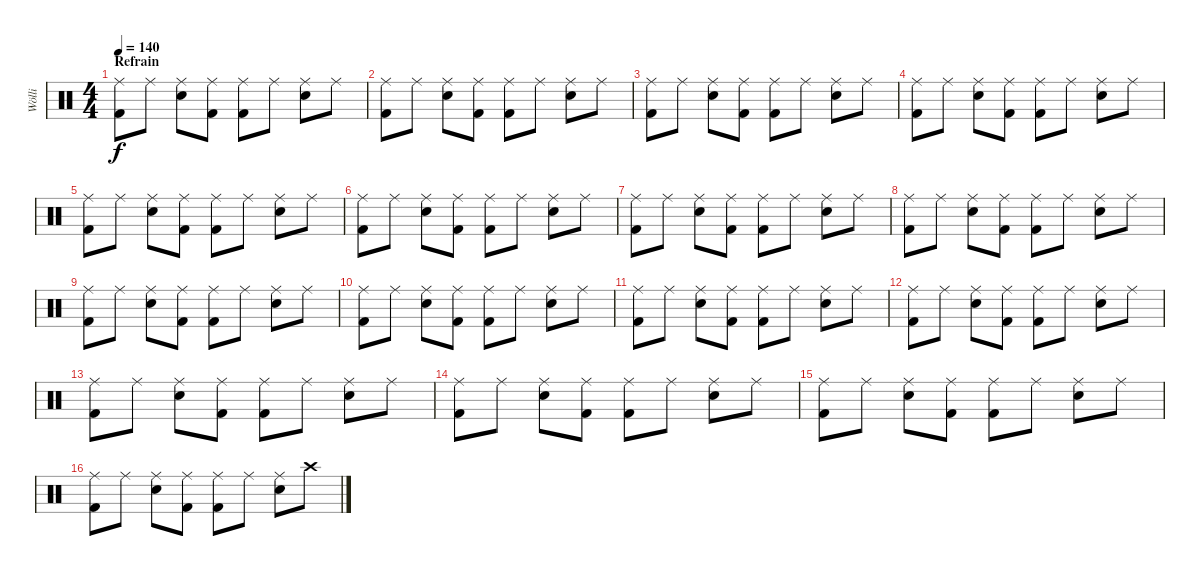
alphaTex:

\track ("Wölli" "Wölli") {instrument percussion}
\staff {score}
\articulation defaults
\ts (4 4)
\section ("" "Refrain")
\tempo 140
\clef neutral
\ks c
("Ride (middle)" "Kick (hit) 2").8{dy f} "Ride (middle)".8 ("Ride (middle)" "Snare (hit) 2").8 ("Ride (middle)" "Kick (hit) 2").8 ("Ride (middle)" "Kick (hit) 2").8 "Ride (middle)".8 ("Ride (middle)" "Snare (hit) 2").8 "Ride (middle)".8 |
("Ride (middle)" "Kick (hit) 2").8 "Ride (middle)".8 ("Ride (middle)" "Snare (hit) 2").8 ("Ride (middle)" "Kick (hit) 2").8 ("Ride (middle)" "Kick (hit) 2").8 "Ride (middle)".8 ("Ride (middle)" "Snare (hit) 2").8 "Ride (middle)".8 |
("Ride (middle)" "Kick (hit) 2").8 "Ride (middle)".8 ("Ride (middle)" "Snare (hit) 2").8 ("Ride (middle)" "Kick (hit) 2").8 ("Ride (middle)" "Kick (hit) 2").8 "Ride (middle)".8 ("Ride (middle)" "Snare (hit) 2").8 "Ride (middle)".8 |
("Ride (middle)" "Kick (hit) 2").8 "Ride (middle)".8 ("Ride (middle)" "Snare (hit) 2").8 ("Ride (middle)" "Kick (hit) 2").8 ("Ride (middle)" "Kick (hit) 2").8 "Ride (middle)".8 ("Ride (middle)" "Snare (hit) 2").8 "Ride (middle)".8 |
("Ride (middle)" "Kick (hit) 2").8 "Ride (middle)".8 ("Ride (middle)" "Snare (hit) 2").8 ("Ride (middle)" "Kick (hit) 2").8 ("Ride (middle)" "Kick (hit) 2").8 "Ride (middle)".8 ("Ride (middle)" "Snare (hit) 2").8 "Ride (middle)".8 |
("Ride (middle)" "Kick (hit) 2").8 "Ride (middle)".8 ("Ride (middle)" "Snare (hit) 2").8 ("Ride (middle)" "Kick (hit) 2").8 ("Ride (middle)" "Kick (hit) 2").8 "Ride (middle)".8 ("Ride (middle)" "Snare (hit) 2").8 "Ride (middle)".8 |
("Ride (middle)" "Kick (hit) 2").8 "Ride (middle)".8 ("Ride (middle)" "Snare (hit) 2").8 ("Ride (middle)" "Kick (hit) 2").8 ("Ride (middle)" "Kick (hit) 2").8 "Ride (middle)".8 ("Ride (middle)" "Snare (hit) 2").8 "Ride (middle)".8 |
("Ride (middle)" "Kick (hit) 2").8 "Ride (middle)".8 ("Ride (middle)" "Snare (hit) 2").8 ("Ride (middle)" "Kick (hit) 2").8 ("Ride (middle)" "Kick (hit) 2").8 "Ride (middle)".8 ("Ride (middle)" "Snare (hit) 2").8 "Ride (middle)".8 |
("Ride (middle)" "Kick (hit) 2").8 "Ride (middle)".8 ("Ride (middle)" "Snare (hit) 2").8 ("Ride (middle)" "Kick (hit) 2").8 ("Ride (middle)" "Kick (hit) 2").8 "Ride (middle)".8 ("Ride (middle)" "Snare (hit) 2").8 "Ride (middle)".8 |
("Ride (middle)" "Kick (hit) 2").8 "Ride (middle)".8 ("Ride (middle)" "Snare (hit) 2").8 ("Ride (middle)" "Kick (hit) 2").8 ("Ride (middle)" "Kick (hit) 2").8 "Ride (middle)".8 ("Ride (middle)" "Snare (hit) 2").8 "Ride (middle)".8 |
("Ride (middle)" "Kick (hit) 2").8 "Ride (middle)".8 ("Ride (middle)" "Snare (hit) 2").8 ("Ride (middle)" "Kick (hit) 2").8 ("Ride (middle)" "Kick (hit) 2").8 "Ride (middle)".8 ("Ride (middle)" "Snare (hit) 2").8 "Ride (middle)".8 |
("Ride (middle)" "Kick (hit) 2").8 "Ride (middle)".8 ("Ride (middle)" "Snare (hit) 2").8 ("Ride (middle)" "Kick (hit) 2").8 ("Ride (middle)" "Kick (hit) 2").8 "Ride (middle)".8 ("Ride (middle)" "Snare (hit) 2").8 "Ride (middle)".8 |
("Ride (middle)" "Kick (hit) 2").8 "Ride (middle)".8 ("Ride (middle)" "Snare (hit) 2").8 ("Ride (middle)" "Kick (hit) 2").8 ("Ride (middle)" "Kick (hit) 2").8 "Ride (middle)".8 ("Ride (middle)" "Snare (hit) 2").8 "Ride (middle)".8 |
("Ride (middle)" "Kick (hit) 2").8 "Ride (middle)".8 ("Ride (middle)" "Snare (hit) 2").8 ("Ride (middle)" "Kick (hit) 2").8 ("Ride (middle)" "Kick (hit) 2").8 "Ride (middle)".8 ("Ride (middle)" "Snare (hit) 2").8 "Ride (middle)".8 |
("Ride (middle)" "Kick (hit) 2").8 "Ride (middle)".8 ("Ride (middle)" "Snare (hit) 2").8 ("Ride (middle)" "Kick (hit) 2").8 ("Ride (middle)" "Kick (hit) 2").8 "Ride (middle)".8 ("Ride (middle)" "Snare (hit) 2").8 "Ride (middle)".8 |
("Ride (middle)" "Kick (hit) 2").8 "Ride (middle)".8 ("Ride (middle)" "Snare (hit) 2").8 ("Ride (middle)" "Kick (hit) 2").8 ("Ride (middle)" "Kick (hit) 2").8 "Ride (middle)".8 ("Ride (middle)" "Snare (hit) 2").8 "Crash high (hit)".8
